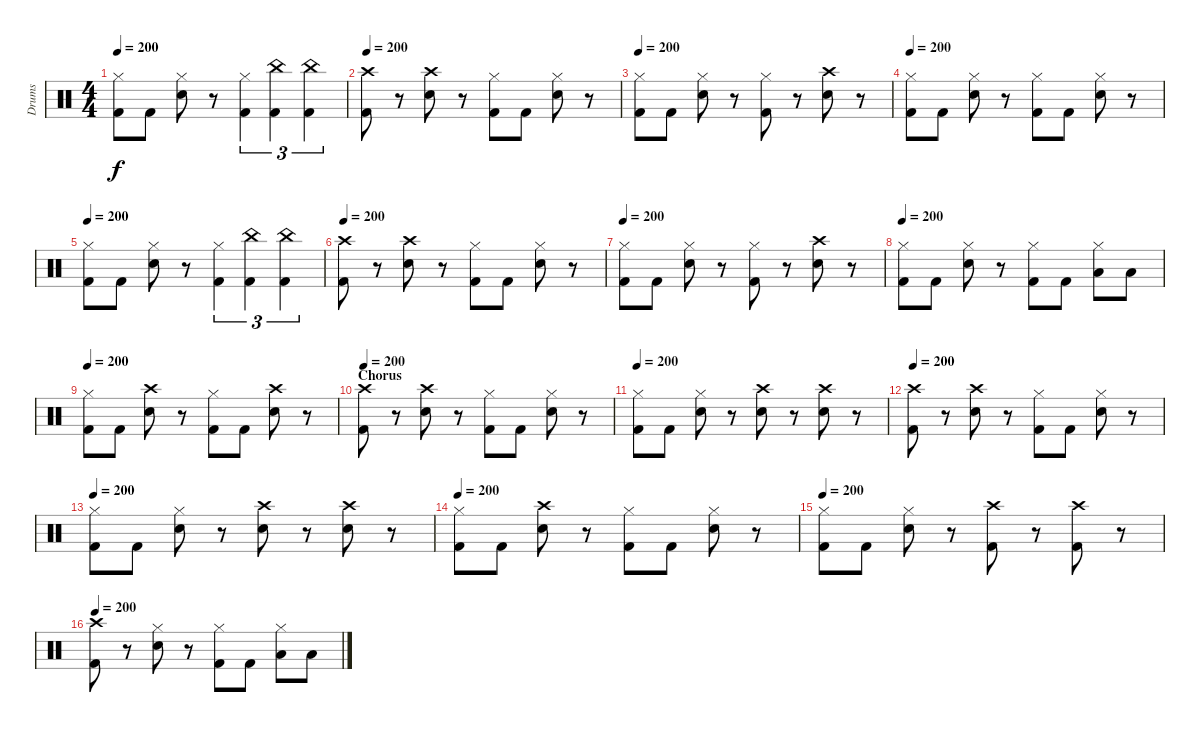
\track ("Drums" "Drums") {instrument percussion}
\staff {score}
\articulation defaults
\ts (4 4)
\tempo 200
\clef neutral
\ks c
("Kick (hit) 2" "Hi-Hat (closed)").8{dy f} "Kick (hit) 2".8 ("Snare (hit) 2" "Hi-Hat (closed)").8 r.8 ("Hi-Hat (closed)" "Kick (hit) 2").4{tu (3 2)} ("China (hit)" "Kick (hit) 2").4{tu (3 2)} ("China (hit)" "Kick (hit) 2").4{tu (3 2)} |
\tempo 200
("Kick (hit) 2" "Crash high (hit)").8 r.8 ("Crash high (hit)" "Snare (hit) 2").8 r.8 ("Hi-Hat (closed)" "Kick (hit) 2").8 "Kick (hit) 2".8 ("Hi-Hat (closed)" "Snare (hit) 2").8 r.8 |
\tempo 200
("Kick (hit) 2" "Hi-Hat (closed)").8 "Kick (hit) 2".8 ("Snare (hit) 2" "Hi-Hat (closed)").8 r.8 ("Hi-Hat (closed)" "Kick (hit) 2").8 r.8 ("Crash high (hit)" "Snare (hit) 2").8 r.8 |
\tempo 200
("Hi-Hat (closed)" "Kick (hit) 2").8 "Kick (hit) 2".8 ("Snare (hit) 2" "Hi-Hat (closed)").8 r.8 ("Hi-Hat (closed)" "Kick (hit) 2").8 "Kick (hit) 2".8 ("Snare (hit) 2" "Hi-Hat (closed)").8 r.8 |
\tempo 200
("Kick (hit) 2" "Hi-Hat (closed)").8 "Kick (hit) 2".8 ("Snare (hit) 2" "Hi-Hat (closed)").8 r.8 ("Hi-Hat (closed)" "Kick (hit) 2").4{tu (3 2)} ("China (hit)" "Kick (hit) 2").4{tu (3 2)} ("China (hit)" "Kick (hit) 2").4{tu (3 2)} |
\tempo 200
("Kick (hit) 2" "Crash high (hit)").8 r.8 ("Crash high (hit)" "Snare (hit) 2").8 r.8 ("Hi-Hat (closed)" "Kick (hit) 2").8 "Kick (hit) 2".8 ("Hi-Hat (closed)" "Snare (hit) 2").8 r.8 |
\tempo 200
("Kick (hit) 2" "Hi-Hat (closed)").8 "Kick (hit) 2".8 ("Snare (hit) 2" "Hi-Hat (closed)").8 r.8 ("Hi-Hat (closed)" "Kick (hit) 2").8 r.8 ("Crash high (hit)" "Snare (hit) 2").8 r.8 |
\tempo 200
("Hi-Hat (closed)" "Kick (hit) 2").8 "Kick (hit) 2".8 ("Snare (hit) 2" "Hi-Hat (closed)").8 r.8 ("Hi-Hat (closed)" "Kick (hit) 2").8 "Kick (hit) 2".8 ("Low Tom (hit)" "Hi-Hat (closed)").8 "Low Tom (hit)".8 |
\tempo 200
("Kick (hit) 2" "Hi-Hat (closed)").8 "Kick (hit) 2".8 ("Crash high (hit)" "Snare (hit) 2").8 r.8 ("Kick (hit) 2" "Hi-Hat (closed)").8 "Kick (hit) 2".8 ("Crash high (hit)" "Snare (hit) 2").8 r.8 |
\section ("" "Chorus")
\tempo 200
("Kick (hit) 2" "Crash high (hit)").8 r.8 ("Crash high (hit)" "Snare (hit) 2").8 r.8 ("Hi-Hat (closed)" "Kick (hit) 2").8 "Kick (hit) 2".8 ("Hi-Hat (closed)" "Snare (hit) 2").8 r.8 |
\tempo 200
("Kick (hit) 2" "Hi-Hat (closed)").8 "Kick (hit) 2".8 ("Snare (hit) 2" "Hi-Hat (closed)").8 r.8 ("Crash high (hit)" "Snare (hit) 2").8 r.8 ("Crash high (hit)" "Snare (hit) 2").8 r.8 |
\tempo 200
("Kick (hit) 2" "Crash high (hit)").8 r.8 ("Crash high (hit)" "Snare (hit) 2").8 r.8 ("Hi-Hat (closed)" "Kick (hit) 2").8 "Kick (hit) 2".8 ("Hi-Hat (closed)" "Snare (hit) 2").8 r.8 |
\tempo 200
("Kick (hit) 2" "Hi-Hat (closed)").8 "Kick (hit) 2".8 ("Snare (hit) 2" "Hi-Hat (closed)").8 r.8 ("Snare (hit) 2" "Crash high (hit)").8 r.8 ("Snare (hit) 2" "Crash high (hit)").8 r.8 |
\tempo 200
("Kick (hit) 2" "Hi-Hat (closed)").8 "Kick (hit) 2".8 ("Crash high (hit)" "Snare (hit) 2").8 r.8 ("Hi-Hat (closed)" "Kick (hit) 2").8 "Kick (hit) 2".8 ("Hi-Hat (closed)" "Snare (hit) 2").8 r.8 |
\tempo 200
("Kick (hit) 2" "Hi-Hat (closed)").8 "Kick (hit) 2".8 ("Snare (hit) 2" "Hi-Hat (closed)").8 r.8 ("Crash high (hit)" "Kick (hit) 2").8 r.8 ("Crash high (hit)" "Kick (hit) 2").8 r.8 |
\tempo 200
("Kick (hit) 2" "Crash high (hit)").8 r.8 ("Hi-Hat (closed)" "Snare (hit) 2").8 r.8 ("Hi-Hat (closed)" "Kick (hit) 2").8 "Kick (hit) 2".8 ("Low Tom (hit)" "Hi-Hat (closed)").8 "Low Tom (hit)".8
